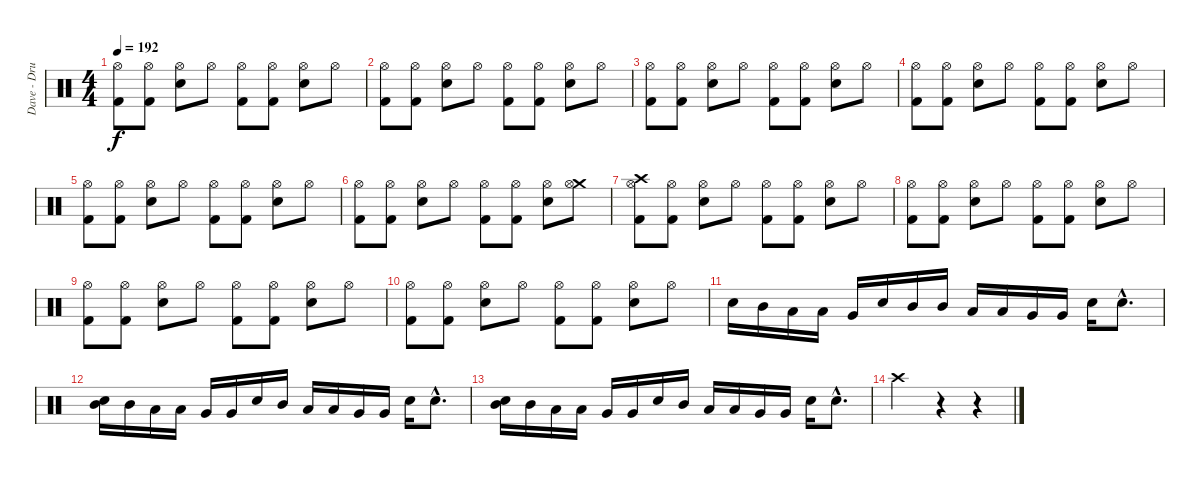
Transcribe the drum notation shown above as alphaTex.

\track ("Dave - Drums" "Dave - Dru") {instrument percussion}
\staff {score}
\articulation defaults
\ts (4 4)
\tempo 192
\clef neutral
\ks c
("Hi-Hat (open)" "Kick (hit) 2").8{dy f} ("Hi-Hat (open)" "Kick (hit) 2").8 ("Hi-Hat (open)" "Electric Snare (hit)").8 "Hi-Hat (open)".8 ("Hi-Hat (open)" "Kick (hit) 2").8 ("Hi-Hat (open)" "Kick (hit) 2").8 ("Hi-Hat (open)" "Electric Snare (hit)").8 "Hi-Hat (open)".8 |
("Hi-Hat (open)" "Kick (hit) 2").8 ("Hi-Hat (open)" "Kick (hit) 2").8 ("Hi-Hat (open)" "Electric Snare (hit)").8 "Hi-Hat (open)".8 ("Hi-Hat (open)" "Kick (hit) 2").8 ("Hi-Hat (open)" "Kick (hit) 2").8 ("Hi-Hat (open)" "Electric Snare (hit)").8 "Hi-Hat (open)".8 |
("Hi-Hat (open)" "Kick (hit) 2").8 ("Hi-Hat (open)" "Kick (hit) 2").8 ("Hi-Hat (open)" "Electric Snare (hit)").8 "Hi-Hat (open)".8 ("Hi-Hat (open)" "Kick (hit) 2").8 ("Hi-Hat (open)" "Kick (hit) 2").8 ("Hi-Hat (open)" "Electric Snare (hit)").8 "Hi-Hat (open)".8 |
("Hi-Hat (open)" "Kick (hit) 2").8 ("Hi-Hat (open)" "Kick (hit) 2").8 ("Hi-Hat (open)" "Electric Snare (hit)").8 "Hi-Hat (open)".8 ("Hi-Hat (open)" "Kick (hit) 2").8 ("Hi-Hat (open)" "Kick (hit) 2").8 ("Hi-Hat (open)" "Electric Snare (hit)").8 "Hi-Hat (open)".8 |
("Hi-Hat (open)" "Kick (hit) 2").8 ("Hi-Hat (open)" "Kick (hit) 2").8 ("Hi-Hat (open)" "Electric Snare (hit)").8 "Hi-Hat (open)".8 ("Hi-Hat (open)" "Kick (hit) 2").8 ("Hi-Hat (open)" "Kick (hit) 2").8 ("Hi-Hat (open)" "Electric Snare (hit)").8 "Hi-Hat (open)".8 |
("Hi-Hat (open)" "Kick (hit) 2").8 ("Hi-Hat (open)" "Kick (hit) 2").8 ("Hi-Hat (open)" "Electric Snare (hit)").8 "Hi-Hat (open)".8 ("Hi-Hat (open)" "Kick (hit) 2").8 ("Hi-Hat (open)" "Kick (hit) 2").8 ("Hi-Hat (open)" "Electric Snare (hit)").8 ("Crash medium (hit)" "Hi-Hat (open)").8 |
("Crash high (hit)" "Hi-Hat (open)" "Kick (hit) 2").8 ("Hi-Hat (open)" "Kick (hit) 2").8 ("Hi-Hat (open)" "Electric Snare (hit)").8 "Hi-Hat (open)".8 ("Hi-Hat (open)" "Kick (hit) 2").8 ("Hi-Hat (open)" "Kick (hit) 2").8 ("Hi-Hat (open)" "Electric Snare (hit)").8 "Hi-Hat (open)".8 |
("Hi-Hat (open)" "Kick (hit) 2").8 ("Hi-Hat (open)" "Kick (hit) 2").8 ("Hi-Hat (open)" "Electric Snare (hit)").8 "Hi-Hat (open)".8 ("Hi-Hat (open)" "Kick (hit) 2").8 ("Hi-Hat (open)" "Kick (hit) 2").8 ("Hi-Hat (open)" "Electric Snare (hit)").8 "Hi-Hat (open)".8 |
("Hi-Hat (open)" "Kick (hit) 2").8 ("Hi-Hat (open)" "Kick (hit) 2").8 ("Hi-Hat (open)" "Electric Snare (hit)").8 "Hi-Hat (open)".8 ("Hi-Hat (open)" "Kick (hit) 2").8 ("Hi-Hat (open)" "Kick (hit) 2").8 ("Hi-Hat (open)" "Electric Snare (hit)").8 "Hi-Hat (open)".8 |
("Hi-Hat (open)" "Kick (hit) 2").8 ("Hi-Hat (open)" "Kick (hit) 2").8 ("Hi-Hat (open)" "Electric Snare (hit)").8 "Hi-Hat (open)".8 ("Hi-Hat (open)" "Kick (hit) 2").8 ("Hi-Hat (open)" "Kick (hit) 2").8 ("Hi-Hat (open)" "Electric Snare (hit)").8 "Hi-Hat (open)".8 |
"Electric Snare (hit)".16 "Mid Tom (hit)".16 "Low Tom (hit)".16 "Low Tom (hit)".16 "Very Low Tom (hit)".16 "Electric Snare (hit)".16 "Mid Tom (hit)".16 "Mid Tom (hit)".16 "Low Tom (hit)".16 "Low Tom (hit)".16 "Very Low Tom (hit)".16 "Very Low Tom (hit)".16 "Electric Snare (hit)".16 "Electric Snare (hit)"{hac}.8{d} |
("Electric Snare (hit)" "Mid Tom (hit)").16 "Mid Tom (hit)".16 "Low Tom (hit)".16 "Low Tom (hit)".16 "Very Low Tom (hit)".16 "Very Low Tom (hit)".16 "Electric Snare (hit)".16 "Mid Tom (hit)".16 "Low Tom (hit)".16 "Low Tom (hit)".16 "Very Low Tom (hit)".16 "Very Low Tom (hit)".16 "Electric Snare (hit)".16 "Electric Snare (hit)"{hac}.8{d} |
("Electric Snare (hit)" "Mid Tom (hit)").16 "Mid Tom (hit)".16 "Low Tom (hit)".16 "Low Tom (hit)".16 "Very Low Tom (hit)".16 "Very Low Tom (hit)".16 "Electric Snare (hit)".16 "Mid Tom (hit)".16 "Low Tom (hit)".16 "Low Tom (hit)".16 "Very Low Tom (hit)".16 "Very Low Tom (hit)".16 "Electric Snare (hit)".16 "Electric Snare (hit)"{hac}.8{d} |
"Crash high (hit)".2 r.4 r.4
